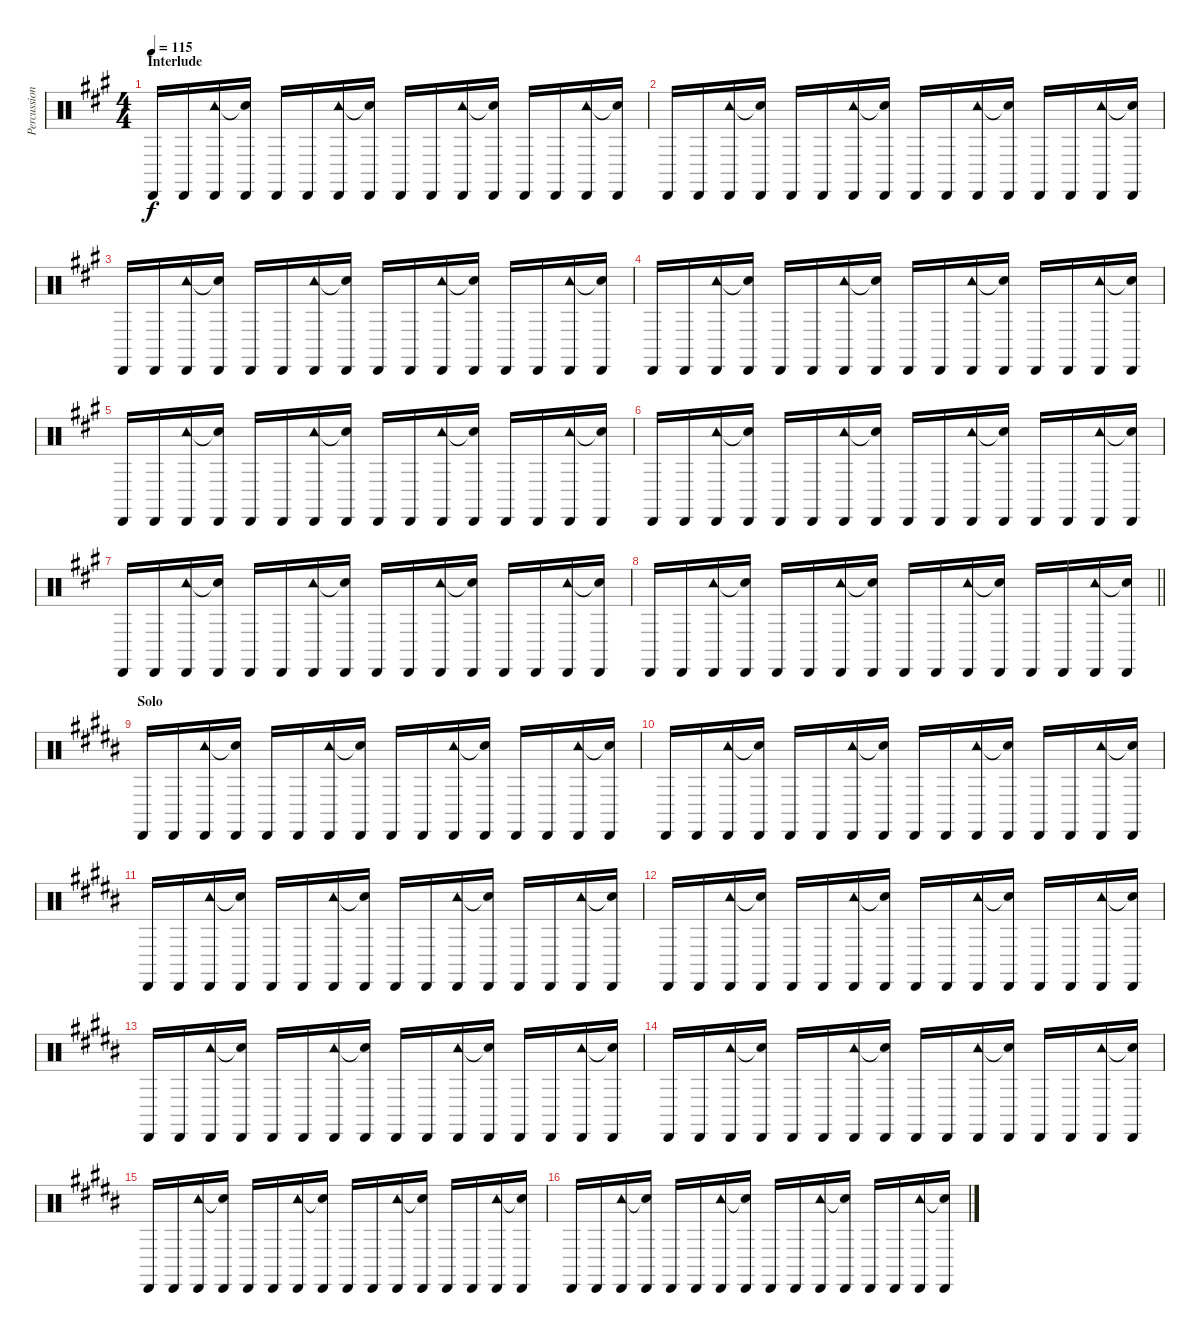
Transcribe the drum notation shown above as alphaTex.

\track ("Percussion" "Percussion") {instrument percussion}
\staff {score}
\articulation defaults
\ts (4 4)
\section ("" "Interlude")
\tempo 115
\clef neutral
\ks a "Cabasa (hit)".16{dy f} "Cabasa (hit)".16
("Cabasa (hit)" "Tambourine (hit)").16 ("Cabasa (hit)" "Snare (hit)"{t}).16 "Cabasa (hit)".16 "Cabasa (hit)".16 ("Cabasa (hit)" "Tambourine (hit)").16 ("Cabasa (hit)" "Snare (hit)"{t}).16 "Cabasa (hit)".16 "Cabasa (hit)".16 ("Cabasa (hit)" "Tambourine (hit)").16 ("Cabasa (hit)" "Snare (hit)"{t}).16 "Cabasa (hit)".16 "Cabasa (hit)".16 ("Cabasa (hit)" "Tambourine (hit)").16 ("Cabasa (hit)" "Snare (hit)"{t}).16 |
"Cabasa (hit)".16 "Cabasa (hit)".16 ("Cabasa (hit)" "Tambourine (hit)").16 ("Cabasa (hit)" "Snare (hit)"{t}).16 "Cabasa (hit)".16 "Cabasa (hit)".16 ("Cabasa (hit)" "Tambourine (hit)").16 ("Cabasa (hit)" "Snare (hit)"{t}).16 "Cabasa (hit)".16 "Cabasa (hit)".16 ("Cabasa (hit)" "Tambourine (hit)").16 ("Cabasa (hit)" "Snare (hit)"{t}).16 "Cabasa (hit)".16 "Cabasa (hit)".16 ("Cabasa (hit)" "Tambourine (hit)").16 ("Cabasa (hit)" "Snare (hit)"{t}).16 |
"Cabasa (hit)".16 "Cabasa (hit)".16 ("Cabasa (hit)" "Tambourine (hit)").16 ("Cabasa (hit)" "Snare (hit)"{t}).16 "Cabasa (hit)".16 "Cabasa (hit)".16 ("Cabasa (hit)" "Tambourine (hit)").16 ("Cabasa (hit)" "Snare (hit)"{t}).16 "Cabasa (hit)".16 "Cabasa (hit)".16 ("Cabasa (hit)" "Tambourine (hit)").16 ("Cabasa (hit)" "Snare (hit)"{t}).16 "Cabasa (hit)".16 "Cabasa (hit)".16 ("Cabasa (hit)" "Tambourine (hit)").16 ("Cabasa (hit)" "Snare (hit)"{t}).16 |
"Cabasa (hit)".16 "Cabasa (hit)".16 ("Cabasa (hit)" "Tambourine (hit)").16 ("Cabasa (hit)" "Snare (hit)"{t}).16 "Cabasa (hit)".16 "Cabasa (hit)".16 ("Cabasa (hit)" "Tambourine (hit)").16 ("Cabasa (hit)" "Snare (hit)"{t}).16 "Cabasa (hit)".16 "Cabasa (hit)".16 ("Cabasa (hit)" "Tambourine (hit)").16 ("Cabasa (hit)" "Snare (hit)"{t}).16 "Cabasa (hit)".16 "Cabasa (hit)".16 ("Cabasa (hit)" "Tambourine (hit)").16 ("Cabasa (hit)" "Snare (hit)"{t}).16 |
"Cabasa (hit)".16 "Cabasa (hit)".16 ("Cabasa (hit)" "Tambourine (hit)").16 ("Cabasa (hit)" "Snare (hit)"{t}).16 "Cabasa (hit)".16 "Cabasa (hit)".16 ("Cabasa (hit)" "Tambourine (hit)").16 ("Cabasa (hit)" "Snare (hit)"{t}).16 "Cabasa (hit)".16 "Cabasa (hit)".16 ("Cabasa (hit)" "Tambourine (hit)").16 ("Cabasa (hit)" "Snare (hit)"{t}).16 "Cabasa (hit)".16 "Cabasa (hit)".16 ("Cabasa (hit)" "Tambourine (hit)").16 ("Cabasa (hit)" "Snare (hit)"{t}).16 |
"Cabasa (hit)".16 "Cabasa (hit)".16 ("Cabasa (hit)" "Tambourine (hit)").16 ("Cabasa (hit)" "Snare (hit)"{t}).16 "Cabasa (hit)".16 "Cabasa (hit)".16 ("Cabasa (hit)" "Tambourine (hit)").16 ("Cabasa (hit)" "Snare (hit)"{t}).16 "Cabasa (hit)".16 "Cabasa (hit)".16 ("Cabasa (hit)" "Tambourine (hit)").16 ("Cabasa (hit)" "Snare (hit)"{t}).16 "Cabasa (hit)".16 "Cabasa (hit)".16 ("Cabasa (hit)" "Tambourine (hit)").16 ("Cabasa (hit)" "Snare (hit)"{t}).16 |
"Cabasa (hit)".16 "Cabasa (hit)".16 ("Cabasa (hit)" "Tambourine (hit)").16 ("Cabasa (hit)" "Snare (hit)"{t}).16 "Cabasa (hit)".16 "Cabasa (hit)".16 ("Cabasa (hit)" "Tambourine (hit)").16 ("Cabasa (hit)" "Snare (hit)"{t}).16 "Cabasa (hit)".16 "Cabasa (hit)".16 ("Cabasa (hit)" "Tambourine (hit)").16 ("Cabasa (hit)" "Snare (hit)"{t}).16 "Cabasa (hit)".16 "Cabasa (hit)".16 ("Cabasa (hit)" "Tambourine (hit)").16 ("Cabasa (hit)" "Snare (hit)"{t}).16 |
\barLineRight lightlight "Cabasa (hit)".16 "Cabasa (hit)".16
("Cabasa (hit)" "Tambourine (hit)").16 ("Cabasa (hit)" "Snare (hit)"{t}).16 "Cabasa (hit)".16 "Cabasa (hit)".16 ("Cabasa (hit)" "Tambourine (hit)").16 ("Cabasa (hit)" "Snare (hit)"{t}).16 "Cabasa (hit)".16 "Cabasa (hit)".16 ("Cabasa (hit)" "Tambourine (hit)").16 ("Cabasa (hit)" "Snare (hit)"{t}).16 "Cabasa (hit)".16 "Cabasa (hit)".16 ("Cabasa (hit)" "Tambourine (hit)").16 ("Cabasa (hit)" "Snare (hit)"{t}).16 |
\section ("" "Solo")
\ks b "Cabasa (hit)".16 "Cabasa (hit)".16
("Cabasa (hit)" "Tambourine (hit)").16 ("Cabasa (hit)" "Snare (hit)"{t}).16 "Cabasa (hit)".16 "Cabasa (hit)".16 ("Cabasa (hit)" "Tambourine (hit)").16 ("Cabasa (hit)" "Snare (hit)"{t}).16 "Cabasa (hit)".16 "Cabasa (hit)".16 ("Cabasa (hit)" "Tambourine (hit)").16 ("Cabasa (hit)" "Snare (hit)"{t}).16 "Cabasa (hit)".16 "Cabasa (hit)".16 ("Cabasa (hit)" "Tambourine (hit)").16 ("Cabasa (hit)" "Snare (hit)"{t}).16 |
"Cabasa (hit)".16 "Cabasa (hit)".16 ("Cabasa (hit)" "Tambourine (hit)").16 ("Cabasa (hit)" "Snare (hit)"{t}).16 "Cabasa (hit)".16 "Cabasa (hit)".16 ("Cabasa (hit)" "Tambourine (hit)").16 ("Cabasa (hit)" "Snare (hit)"{t}).16 "Cabasa (hit)".16 "Cabasa (hit)".16 ("Cabasa (hit)" "Tambourine (hit)").16 ("Cabasa (hit)" "Snare (hit)"{t}).16 "Cabasa (hit)".16 "Cabasa (hit)".16 ("Cabasa (hit)" "Tambourine (hit)").16 ("Cabasa (hit)" "Snare (hit)"{t}).16 |
"Cabasa (hit)".16 "Cabasa (hit)".16 ("Cabasa (hit)" "Tambourine (hit)").16 ("Cabasa (hit)" "Snare (hit)"{t}).16 "Cabasa (hit)".16 "Cabasa (hit)".16 ("Cabasa (hit)" "Tambourine (hit)").16 ("Cabasa (hit)" "Snare (hit)"{t}).16 "Cabasa (hit)".16 "Cabasa (hit)".16 ("Cabasa (hit)" "Tambourine (hit)").16 ("Cabasa (hit)" "Snare (hit)"{t}).16 "Cabasa (hit)".16 "Cabasa (hit)".16 ("Cabasa (hit)" "Tambourine (hit)").16 ("Cabasa (hit)" "Snare (hit)"{t}).16 |
"Cabasa (hit)".16 "Cabasa (hit)".16 ("Cabasa (hit)" "Tambourine (hit)").16 ("Cabasa (hit)" "Snare (hit)"{t}).16 "Cabasa (hit)".16 "Cabasa (hit)".16 ("Cabasa (hit)" "Tambourine (hit)").16 ("Cabasa (hit)" "Snare (hit)"{t}).16 "Cabasa (hit)".16 "Cabasa (hit)".16 ("Cabasa (hit)" "Tambourine (hit)").16 ("Cabasa (hit)" "Snare (hit)"{t}).16 "Cabasa (hit)".16 "Cabasa (hit)".16 ("Cabasa (hit)" "Tambourine (hit)").16 ("Cabasa (hit)" "Snare (hit)"{t}).16 |
"Cabasa (hit)".16 "Cabasa (hit)".16 ("Cabasa (hit)" "Tambourine (hit)").16 ("Cabasa (hit)" "Snare (hit)"{t}).16 "Cabasa (hit)".16 "Cabasa (hit)".16 ("Cabasa (hit)" "Tambourine (hit)").16 ("Cabasa (hit)" "Snare (hit)"{t}).16 "Cabasa (hit)".16 "Cabasa (hit)".16 ("Cabasa (hit)" "Tambourine (hit)").16 ("Cabasa (hit)" "Snare (hit)"{t}).16 "Cabasa (hit)".16 "Cabasa (hit)".16 ("Cabasa (hit)" "Tambourine (hit)").16 ("Cabasa (hit)" "Snare (hit)"{t}).16 |
"Cabasa (hit)".16 "Cabasa (hit)".16 ("Cabasa (hit)" "Tambourine (hit)").16 ("Cabasa (hit)" "Snare (hit)"{t}).16 "Cabasa (hit)".16 "Cabasa (hit)".16 ("Cabasa (hit)" "Tambourine (hit)").16 ("Cabasa (hit)" "Snare (hit)"{t}).16 "Cabasa (hit)".16 "Cabasa (hit)".16 ("Cabasa (hit)" "Tambourine (hit)").16 ("Cabasa (hit)" "Snare (hit)"{t}).16 "Cabasa (hit)".16 "Cabasa (hit)".16 ("Cabasa (hit)" "Tambourine (hit)").16 ("Cabasa (hit)" "Snare (hit)"{t}).16 |
"Cabasa (hit)".16 "Cabasa (hit)".16 ("Cabasa (hit)" "Tambourine (hit)").16 ("Cabasa (hit)" "Snare (hit)"{t}).16 "Cabasa (hit)".16 "Cabasa (hit)".16 ("Cabasa (hit)" "Tambourine (hit)").16 ("Cabasa (hit)" "Snare (hit)"{t}).16 "Cabasa (hit)".16 "Cabasa (hit)".16 ("Cabasa (hit)" "Tambourine (hit)").16 ("Cabasa (hit)" "Snare (hit)"{t}).16 "Cabasa (hit)".16 "Cabasa (hit)".16 ("Cabasa (hit)" "Tambourine (hit)").16 ("Cabasa (hit)" "Snare (hit)"{t}).16 |
"Cabasa (hit)".16 "Cabasa (hit)".16 ("Cabasa (hit)" "Tambourine (hit)").16 ("Cabasa (hit)" "Snare (hit)"{t}).16 "Cabasa (hit)".16 "Cabasa (hit)".16 ("Cabasa (hit)" "Tambourine (hit)").16 ("Cabasa (hit)" "Snare (hit)"{t}).16 "Cabasa (hit)".16 "Cabasa (hit)".16 ("Cabasa (hit)" "Tambourine (hit)").16 ("Cabasa (hit)" "Snare (hit)"{t}).16 "Cabasa (hit)".16 "Cabasa (hit)".16 ("Cabasa (hit)" "Tambourine (hit)").16 ("Cabasa (hit)" "Snare (hit)"{t}).16
